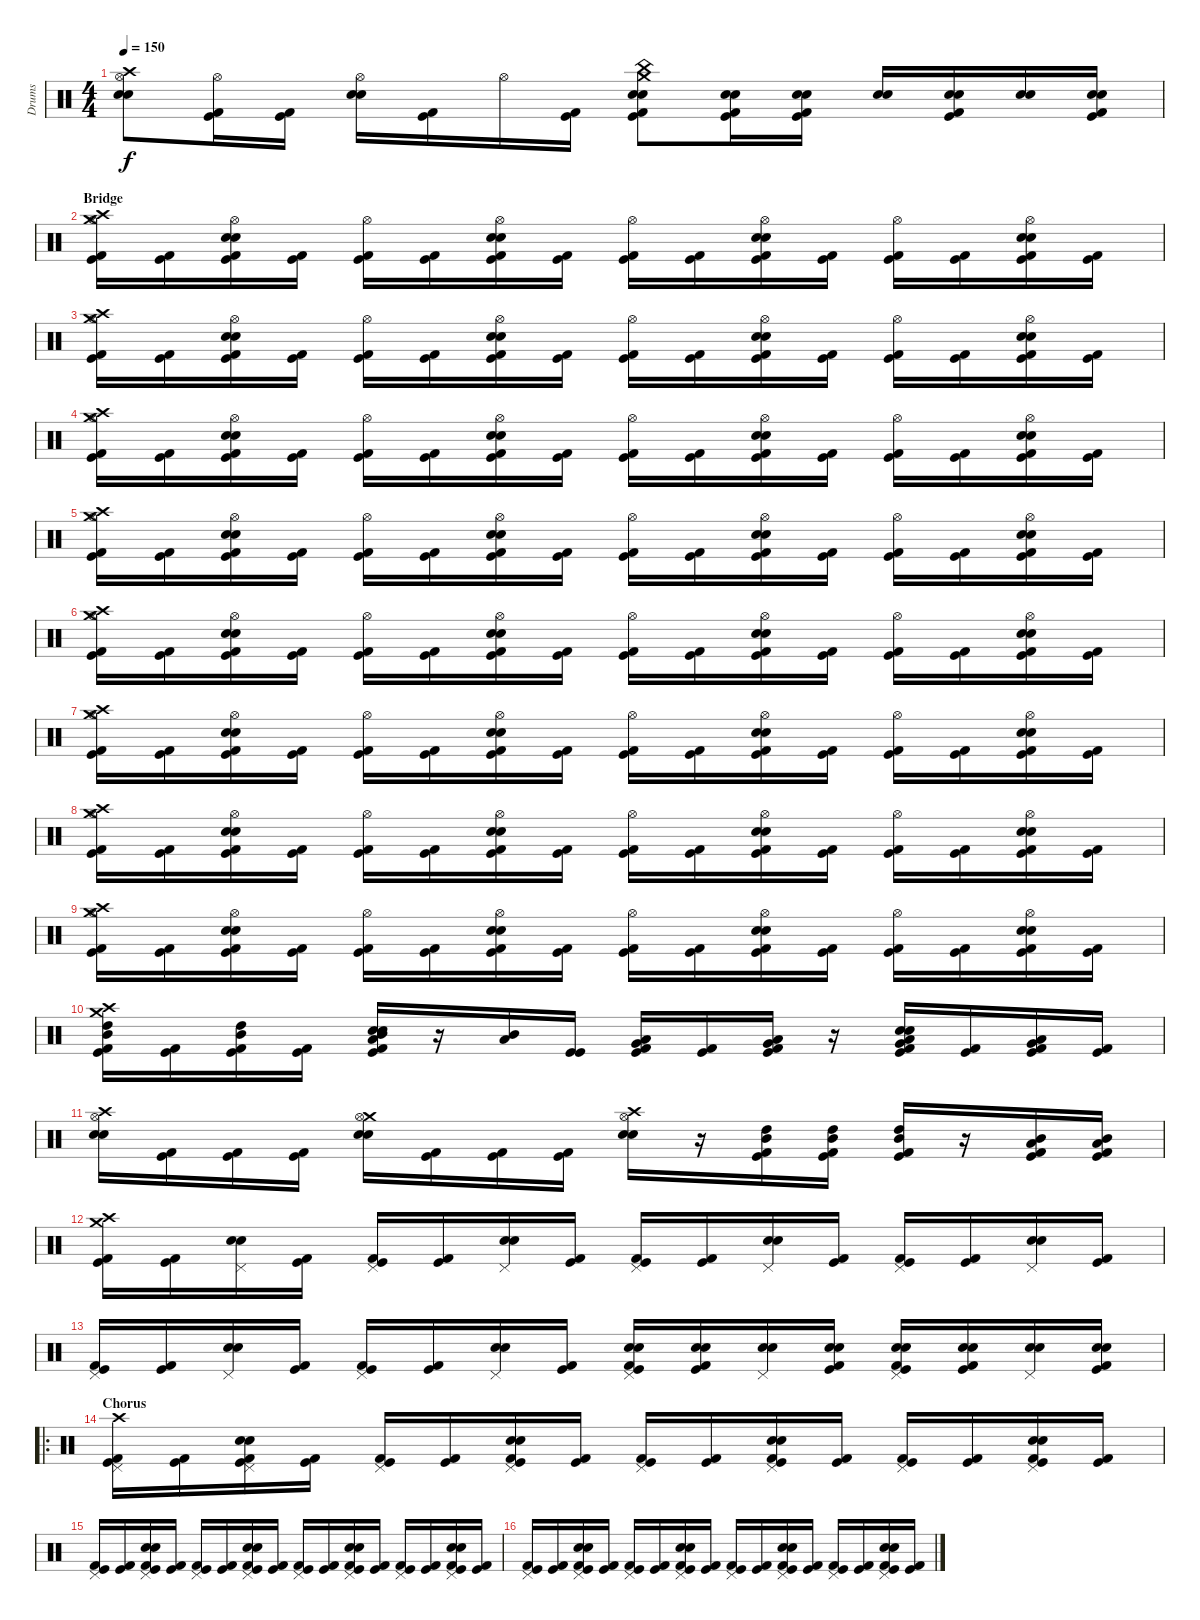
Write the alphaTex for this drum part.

\track ("Drums" "Drums") {instrument percussion}
\staff {score}
\articulation defaults
\ts (4 4)
\tempo 150
\clef neutral
\ks c
("Crash high (hit)" "Hi-Hat (open)" "Electric Snare (hit)" "Snare (hit) 2").8{dy f} ("Hi-Hat (open)" "Kick (hit) 2" "Kick (hit)").16 ("Kick (hit) 2" "Kick (hit)").16 ("Hi-Hat (open)" "Electric Snare (hit)" "Snare (hit) 2").16 ("Kick (hit) 2" "Kick (hit)").16 "Hi-Hat (open)".16 ("Kick (hit)" "Kick (hit) 2").16 ("China (hit)" "Crash medium (hit)" "Snare (hit) 2" "Electric Snare (hit)" "Kick (hit)" "Kick (hit) 2").8 ("Electric Snare (hit)" "Snare (hit) 2" "Kick (hit) 2" "Kick (hit)").16 ("Electric Snare (hit)" "Snare (hit) 2" "Kick (hit) 2" "Kick (hit)").16 ("Electric Snare (hit)" "Snare (hit) 2").16 ("Electric Snare (hit)" "Snare (hit) 2" "Kick (hit)" "Kick (hit) 2").16 ("Electric Snare (hit)" "Snare (hit) 2").16 ("Electric Snare (hit)" "Snare (hit) 2" "Kick (hit)" "Kick (hit) 2").16 |
\section ("" "Bridge")
("Crash high (hit)" "Hi-Hat (open)" "Crash medium (hit)" "Kick (hit)" "Kick (hit) 2").16 ("Kick (hit)" "Kick (hit) 2").16 ("Hi-Hat (open)" "Electric Snare (hit)" "Snare (hit) 2" "Kick (hit)" "Kick (hit) 2").16 ("Kick (hit)" "Kick (hit) 2").16 ("Hi-Hat (open)" "Kick (hit)" "Kick (hit) 2").16 ("Kick (hit)" "Kick (hit) 2").16 ("Hi-Hat (open)" "Electric Snare (hit)" "Snare (hit) 2" "Kick (hit)" "Kick (hit) 2").16 ("Kick (hit)" "Kick (hit) 2").16 ("Hi-Hat (open)" "Kick (hit)" "Kick (hit) 2").16 ("Kick (hit)" "Kick (hit) 2").16 ("Hi-Hat (open)" "Electric Snare (hit)" "Snare (hit) 2" "Kick (hit)" "Kick (hit) 2").16 ("Kick (hit)" "Kick (hit) 2").16 ("Hi-Hat (open)" "Kick (hit)" "Kick (hit) 2").16 ("Kick (hit)" "Kick (hit) 2").16 ("Hi-Hat (open)" "Electric Snare (hit)" "Snare (hit) 2" "Kick (hit)" "Kick (hit) 2").16 ("Kick (hit)" "Kick (hit) 2").16 |
("Crash high (hit)" "Hi-Hat (open)" "Crash medium (hit)" "Kick (hit)" "Kick (hit) 2").16 ("Kick (hit)" "Kick (hit) 2").16 ("Hi-Hat (open)" "Electric Snare (hit)" "Snare (hit) 2" "Kick (hit)" "Kick (hit) 2").16 ("Kick (hit)" "Kick (hit) 2").16 ("Hi-Hat (open)" "Kick (hit)" "Kick (hit) 2").16 ("Kick (hit)" "Kick (hit) 2").16 ("Hi-Hat (open)" "Electric Snare (hit)" "Snare (hit) 2" "Kick (hit)" "Kick (hit) 2").16 ("Kick (hit)" "Kick (hit) 2").16 ("Hi-Hat (open)" "Kick (hit)" "Kick (hit) 2").16 ("Kick (hit)" "Kick (hit) 2").16 ("Hi-Hat (open)" "Electric Snare (hit)" "Snare (hit) 2" "Kick (hit)" "Kick (hit) 2").16 ("Kick (hit)" "Kick (hit) 2").16 ("Hi-Hat (open)" "Kick (hit)" "Kick (hit) 2").16 ("Kick (hit)" "Kick (hit) 2").16 ("Hi-Hat (open)" "Electric Snare (hit)" "Snare (hit) 2" "Kick (hit)" "Kick (hit) 2").16 ("Kick (hit)" "Kick (hit) 2").16 |
("Crash high (hit)" "Hi-Hat (open)" "Crash medium (hit)" "Kick (hit)" "Kick (hit) 2").16 ("Kick (hit)" "Kick (hit) 2").16 ("Hi-Hat (open)" "Electric Snare (hit)" "Snare (hit) 2" "Kick (hit)" "Kick (hit) 2").16 ("Kick (hit)" "Kick (hit) 2").16 ("Hi-Hat (open)" "Kick (hit)" "Kick (hit) 2").16 ("Kick (hit)" "Kick (hit) 2").16 ("Hi-Hat (open)" "Electric Snare (hit)" "Snare (hit) 2" "Kick (hit)" "Kick (hit) 2").16 ("Kick (hit)" "Kick (hit) 2").16 ("Hi-Hat (open)" "Kick (hit)" "Kick (hit) 2").16 ("Kick (hit)" "Kick (hit) 2").16 ("Hi-Hat (open)" "Electric Snare (hit)" "Snare (hit) 2" "Kick (hit)" "Kick (hit) 2").16 ("Kick (hit)" "Kick (hit) 2").16 ("Hi-Hat (open)" "Kick (hit)" "Kick (hit) 2").16 ("Kick (hit)" "Kick (hit) 2").16 ("Hi-Hat (open)" "Electric Snare (hit)" "Snare (hit) 2" "Kick (hit)" "Kick (hit) 2").16 ("Kick (hit)" "Kick (hit) 2").16 |
("Crash high (hit)" "Hi-Hat (open)" "Crash medium (hit)" "Kick (hit)" "Kick (hit) 2").16 ("Kick (hit)" "Kick (hit) 2").16 ("Hi-Hat (open)" "Electric Snare (hit)" "Snare (hit) 2" "Kick (hit)" "Kick (hit) 2").16 ("Kick (hit)" "Kick (hit) 2").16 ("Hi-Hat (open)" "Kick (hit)" "Kick (hit) 2").16 ("Kick (hit)" "Kick (hit) 2").16 ("Hi-Hat (open)" "Electric Snare (hit)" "Snare (hit) 2" "Kick (hit)" "Kick (hit) 2").16 ("Kick (hit)" "Kick (hit) 2").16 ("Hi-Hat (open)" "Kick (hit)" "Kick (hit) 2").16 ("Kick (hit)" "Kick (hit) 2").16 ("Hi-Hat (open)" "Electric Snare (hit)" "Snare (hit) 2" "Kick (hit)" "Kick (hit) 2").16 ("Kick (hit)" "Kick (hit) 2").16 ("Hi-Hat (open)" "Kick (hit)" "Kick (hit) 2").16 ("Kick (hit)" "Kick (hit) 2").16 ("Hi-Hat (open)" "Electric Snare (hit)" "Snare (hit) 2" "Kick (hit)" "Kick (hit) 2").16 ("Kick (hit)" "Kick (hit) 2").16 |
("Crash high (hit)" "Hi-Hat (open)" "Crash medium (hit)" "Kick (hit)" "Kick (hit) 2").16 ("Kick (hit)" "Kick (hit) 2").16 ("Hi-Hat (open)" "Electric Snare (hit)" "Snare (hit) 2" "Kick (hit)" "Kick (hit) 2").16 ("Kick (hit)" "Kick (hit) 2").16 ("Hi-Hat (open)" "Kick (hit)" "Kick (hit) 2").16 ("Kick (hit)" "Kick (hit) 2").16 ("Hi-Hat (open)" "Electric Snare (hit)" "Snare (hit) 2" "Kick (hit)" "Kick (hit) 2").16 ("Kick (hit)" "Kick (hit) 2").16 ("Hi-Hat (open)" "Kick (hit)" "Kick (hit) 2").16 ("Kick (hit)" "Kick (hit) 2").16 ("Hi-Hat (open)" "Electric Snare (hit)" "Snare (hit) 2" "Kick (hit)" "Kick (hit) 2").16 ("Kick (hit)" "Kick (hit) 2").16 ("Hi-Hat (open)" "Kick (hit)" "Kick (hit) 2").16 ("Kick (hit)" "Kick (hit) 2").16 ("Hi-Hat (open)" "Electric Snare (hit)" "Snare (hit) 2" "Kick (hit)" "Kick (hit) 2").16 ("Kick (hit)" "Kick (hit) 2").16 |
("Crash high (hit)" "Hi-Hat (open)" "Crash medium (hit)" "Kick (hit)" "Kick (hit) 2").16 ("Kick (hit)" "Kick (hit) 2").16 ("Hi-Hat (open)" "Electric Snare (hit)" "Snare (hit) 2" "Kick (hit)" "Kick (hit) 2").16 ("Kick (hit)" "Kick (hit) 2").16 ("Hi-Hat (open)" "Kick (hit)" "Kick (hit) 2").16 ("Kick (hit)" "Kick (hit) 2").16 ("Hi-Hat (open)" "Electric Snare (hit)" "Snare (hit) 2" "Kick (hit)" "Kick (hit) 2").16 ("Kick (hit)" "Kick (hit) 2").16 ("Hi-Hat (open)" "Kick (hit)" "Kick (hit) 2").16 ("Kick (hit)" "Kick (hit) 2").16 ("Hi-Hat (open)" "Electric Snare (hit)" "Snare (hit) 2" "Kick (hit)" "Kick (hit) 2").16 ("Kick (hit)" "Kick (hit) 2").16 ("Hi-Hat (open)" "Kick (hit)" "Kick (hit) 2").16 ("Kick (hit)" "Kick (hit) 2").16 ("Hi-Hat (open)" "Electric Snare (hit)" "Snare (hit) 2" "Kick (hit)" "Kick (hit) 2").16 ("Kick (hit)" "Kick (hit) 2").16 |
("Crash high (hit)" "Hi-Hat (open)" "Crash medium (hit)" "Kick (hit)" "Kick (hit) 2").16 ("Kick (hit)" "Kick (hit) 2").16 ("Hi-Hat (open)" "Electric Snare (hit)" "Snare (hit) 2" "Kick (hit)" "Kick (hit) 2").16 ("Kick (hit)" "Kick (hit) 2").16 ("Hi-Hat (open)" "Kick (hit)" "Kick (hit) 2").16 ("Kick (hit)" "Kick (hit) 2").16 ("Hi-Hat (open)" "Electric Snare (hit)" "Snare (hit) 2" "Kick (hit)" "Kick (hit) 2").16 ("Kick (hit)" "Kick (hit) 2").16 ("Hi-Hat (open)" "Kick (hit)" "Kick (hit) 2").16 ("Kick (hit)" "Kick (hit) 2").16 ("Hi-Hat (open)" "Electric Snare (hit)" "Snare (hit) 2" "Kick (hit)" "Kick (hit) 2").16 ("Kick (hit)" "Kick (hit) 2").16 ("Hi-Hat (open)" "Kick (hit)" "Kick (hit) 2").16 ("Kick (hit)" "Kick (hit) 2").16 ("Hi-Hat (open)" "Electric Snare (hit)" "Snare (hit) 2" "Kick (hit)" "Kick (hit) 2").16 ("Kick (hit)" "Kick (hit) 2").16 |
("Crash high (hit)" "Hi-Hat (open)" "Crash medium (hit)" "Kick (hit)" "Kick (hit) 2").16 ("Kick (hit)" "Kick (hit) 2").16 ("Hi-Hat (open)" "Electric Snare (hit)" "Snare (hit) 2" "Kick (hit)" "Kick (hit) 2").16 ("Kick (hit)" "Kick (hit) 2").16 ("Hi-Hat (open)" "Kick (hit)" "Kick (hit) 2").16 ("Kick (hit)" "Kick (hit) 2").16 ("Hi-Hat (open)" "Electric Snare (hit)" "Snare (hit) 2" "Kick (hit)" "Kick (hit) 2").16 ("Kick (hit)" "Kick (hit) 2").16 ("Hi-Hat (open)" "Kick (hit)" "Kick (hit) 2").16 ("Kick (hit)" "Kick (hit) 2").16 ("Hi-Hat (open)" "Electric Snare (hit)" "Snare (hit) 2" "Kick (hit)" "Kick (hit) 2").16 ("Kick (hit)" "Kick (hit) 2").16 ("Hi-Hat (open)" "Kick (hit)" "Kick (hit) 2").16 ("Kick (hit)" "Kick (hit) 2").16 ("Hi-Hat (open)" "Electric Snare (hit)" "Snare (hit) 2" "Kick (hit)" "Kick (hit) 2").16 ("Kick (hit)" "Kick (hit) 2").16 |
("Crash high (hit)" "High Tom (hit)" "Crash medium (hit)" "Mid Tom (hit)" "Kick (hit) 2" "Kick (hit)").16 ("Kick (hit) 2" "Kick (hit)").16 ("Mid Tom (hit)" "High Tom (hit)" "Kick (hit) 2" "Kick (hit)").16 ("Kick (hit) 2" "Kick (hit)").16 ("Low Tom (hit)" "Mid Tom (hit)" "Electric Snare (hit)" "Snare (hit) 2" "Kick (hit) 2" "Kick (hit)").16 r.16 ("Low Tom (hit)" "Mid Tom (hit)").16 ("Kick (hit)" "Kick (hit)").16 ("Very Low Tom (hit)" "Low Tom (hit)" "Kick (hit) 2" "Kick (hit)").16 ("Kick (hit) 2" "Kick (hit)").16 ("Very Low Tom (hit)" "Low Tom (hit)" "Kick (hit) 2" "Kick (hit)").16 r.16 ("Low Floor Tom (hit)" "Very Low Tom (hit)" "Electric Snare (hit)" "Snare (hit) 2" "Kick (hit) 2" "Kick (hit)").16 ("Kick (hit) 2" "Kick (hit)").16 ("Low Floor Tom (hit)" "Very Low Tom (hit)" "Kick (hit) 2" "Kick (hit)").16 ("Kick (hit) 2" "Kick (hit)").16 |
("Crash high (hit)" "Hi-Hat (open)" "Electric Snare (hit)" "Snare (hit) 2").16 ("Kick (hit) 2" "Kick (hit)").16 ("Kick (hit) 2" "Kick (hit)").16 ("Kick (hit) 2" "Kick (hit)").16 ("Crash medium (hit)" "Hi-Hat (open)" "Electric Snare (hit)" "Snare (hit) 2").16 ("Kick (hit) 2" "Kick (hit)").16 ("Kick (hit) 2" "Kick (hit)").16 ("Kick (hit) 2" "Kick (hit)").16 ("Crash high (hit)" "Hi-Hat (open)" "Electric Snare (hit)" "Snare (hit) 2").16 r.16 ("High Tom (hit)" "Mid Tom (hit)" "Kick (hit) 2" "Kick (hit)").16 ("High Tom (hit)" "Mid Tom (hit)" "Kick (hit) 2" "Kick (hit)").16 ("High Tom (hit)" "Mid Tom (hit)" "Kick (hit) 2" "Kick (hit)").16 r.16 ("Mid Tom (hit)" "Low Tom (hit)" "Kick (hit) 2" "Kick (hit)").16 ("Mid Tom (hit)" "Low Tom (hit)" "Kick (hit) 2" "Kick (hit)").16 |
("Crash high (hit)" "Crash medium (hit)" "Kick (hit) 2" "Kick (hit)").16 ("Kick (hit) 2" "Kick (hit)").16 ("Pedal Hi-Hat (hit)" "Electric Snare (hit)" "Snare (hit) 2").16 ("Kick (hit) 2" "Kick (hit)").16 ("Pedal Hi-Hat (hit)" "Kick (hit) 2" "Kick (hit)").16 ("Kick (hit) 2" "Kick (hit)").16 ("Pedal Hi-Hat (hit)" "Electric Snare (hit)" "Snare (hit) 2").16 ("Kick (hit)" "Kick (hit) 2").16 ("Pedal Hi-Hat (hit)" "Kick (hit)" "Kick (hit) 2").16 ("Kick (hit)" "Kick (hit) 2").16 ("Pedal Hi-Hat (hit)" "Electric Snare (hit)" "Snare (hit) 2").16 ("Kick (hit) 2" "Kick (hit)").16 ("Pedal Hi-Hat (hit)" "Kick (hit) 2" "Kick (hit)").16 ("Kick (hit) 2" "Kick (hit)").16 ("Pedal Hi-Hat (hit)" "Electric Snare (hit)" "Snare (hit) 2").16 ("Kick (hit)" "Kick (hit) 2").16 |
("Pedal Hi-Hat (hit)" "Kick (hit) 2" "Kick (hit)").16 ("Kick (hit) 2" "Kick (hit)").16 ("Pedal Hi-Hat (hit)" "Electric Snare (hit)" "Snare (hit) 2").16 ("Kick (hit) 2" "Kick (hit)").16 ("Pedal Hi-Hat (hit)" "Kick (hit) 2" "Kick (hit)").16 ("Kick (hit) 2" "Kick (hit)").16 ("Pedal Hi-Hat (hit)" "Electric Snare (hit)" "Snare (hit) 2").16 ("Kick (hit)" "Kick (hit) 2").16 ("Pedal Hi-Hat (hit)" "Electric Snare (hit)" "Snare (hit) 2" "Kick (hit)" "Kick (hit) 2").16 ("Electric Snare (hit)" "Snare (hit) 2" "Kick (hit)" "Kick (hit) 2").16 ("Pedal Hi-Hat (hit)" "Electric Snare (hit)" "Snare (hit) 2").16 ("Electric Snare (hit)" "Snare (hit) 2" "Kick (hit) 2" "Kick (hit)").16 ("Pedal Hi-Hat (hit)" "Electric Snare (hit)" "Snare (hit) 2" "Kick (hit) 2" "Kick (hit)").16 ("Electric Snare (hit)" "Snare (hit) 2" "Kick (hit) 2" "Kick (hit)").16 ("Pedal Hi-Hat (hit)" "Electric Snare (hit)" "Snare (hit) 2").16 ("Electric Snare (hit)" "Snare (hit) 2" "Kick (hit)" "Kick (hit) 2").16 |
\ro
\section ("" "Chorus")
("Crash high (hit)" "Pedal Hi-Hat (hit)" "Kick (hit) 2" "Kick (hit)").16 ("Kick (hit) 2" "Kick (hit)").16 ("Pedal Hi-Hat (hit)" "Electric Snare (hit)" "Snare (hit) 2" "Kick (hit) 2" "Kick (hit)").16 ("Kick (hit) 2" "Kick (hit)").16 ("Pedal Hi-Hat (hit)" "Kick (hit) 2" "Kick (hit)").16 ("Kick (hit) 2" "Kick (hit)").16 ("Pedal Hi-Hat (hit)" "Electric Snare (hit)" "Snare (hit) 2" "Kick (hit) 2" "Kick (hit)").16 ("Kick (hit) 2" "Kick (hit)").16 ("Pedal Hi-Hat (hit)" "Kick (hit) 2" "Kick (hit)").16 ("Kick (hit) 2" "Kick (hit)").16 ("Pedal Hi-Hat (hit)" "Electric Snare (hit)" "Snare (hit) 2" "Kick (hit) 2" "Kick (hit)").16 ("Kick (hit) 2" "Kick (hit)").16 ("Pedal Hi-Hat (hit)" "Kick (hit) 2" "Kick (hit)").16 ("Kick (hit) 2" "Kick (hit)").16 ("Pedal Hi-Hat (hit)" "Electric Snare (hit)" "Snare (hit) 2" "Kick (hit) 2" "Kick (hit)").16 ("Kick (hit) 2" "Kick (hit)").16 |
("Pedal Hi-Hat (hit)" "Kick (hit) 2" "Kick (hit)").16 ("Kick (hit) 2" "Kick (hit)").16 ("Pedal Hi-Hat (hit)" "Electric Snare (hit)" "Snare (hit) 2" "Kick (hit) 2" "Kick (hit)").16 ("Kick (hit) 2" "Kick (hit)").16 ("Pedal Hi-Hat (hit)" "Kick (hit) 2" "Kick (hit)").16 ("Kick (hit) 2" "Kick (hit)").16 ("Pedal Hi-Hat (hit)" "Electric Snare (hit)" "Snare (hit) 2" "Kick (hit) 2" "Kick (hit)").16 ("Kick (hit) 2" "Kick (hit)").16 ("Pedal Hi-Hat (hit)" "Kick (hit) 2" "Kick (hit)").16 ("Kick (hit) 2" "Kick (hit)").16 ("Pedal Hi-Hat (hit)" "Electric Snare (hit)" "Snare (hit) 2" "Kick (hit) 2" "Kick (hit)").16 ("Kick (hit) 2" "Kick (hit)").16 ("Pedal Hi-Hat (hit)" "Kick (hit) 2" "Kick (hit)").16 ("Kick (hit) 2" "Kick (hit)").16 ("Pedal Hi-Hat (hit)" "Electric Snare (hit)" "Snare (hit) 2" "Kick (hit) 2" "Kick (hit)").16 ("Kick (hit) 2" "Kick (hit)").16 |
("Pedal Hi-Hat (hit)" "Kick (hit) 2" "Kick (hit)").16 ("Kick (hit) 2" "Kick (hit)").16 ("Pedal Hi-Hat (hit)" "Electric Snare (hit)" "Snare (hit) 2" "Kick (hit) 2" "Kick (hit)").16 ("Kick (hit) 2" "Kick (hit)").16 ("Pedal Hi-Hat (hit)" "Kick (hit) 2" "Kick (hit)").16 ("Kick (hit) 2" "Kick (hit)").16 ("Pedal Hi-Hat (hit)" "Electric Snare (hit)" "Snare (hit) 2" "Kick (hit) 2" "Kick (hit)").16 ("Kick (hit) 2" "Kick (hit)").16 ("Pedal Hi-Hat (hit)" "Kick (hit) 2" "Kick (hit)").16 ("Kick (hit) 2" "Kick (hit)").16 ("Pedal Hi-Hat (hit)" "Electric Snare (hit)" "Snare (hit) 2" "Kick (hit) 2" "Kick (hit)").16 ("Kick (hit) 2" "Kick (hit)").16 ("Pedal Hi-Hat (hit)" "Kick (hit) 2" "Kick (hit)").16 ("Kick (hit) 2" "Kick (hit)").16 ("Pedal Hi-Hat (hit)" "Electric Snare (hit)" "Snare (hit) 2" "Kick (hit) 2" "Kick (hit)").16 ("Kick (hit) 2" "Kick (hit)").16
